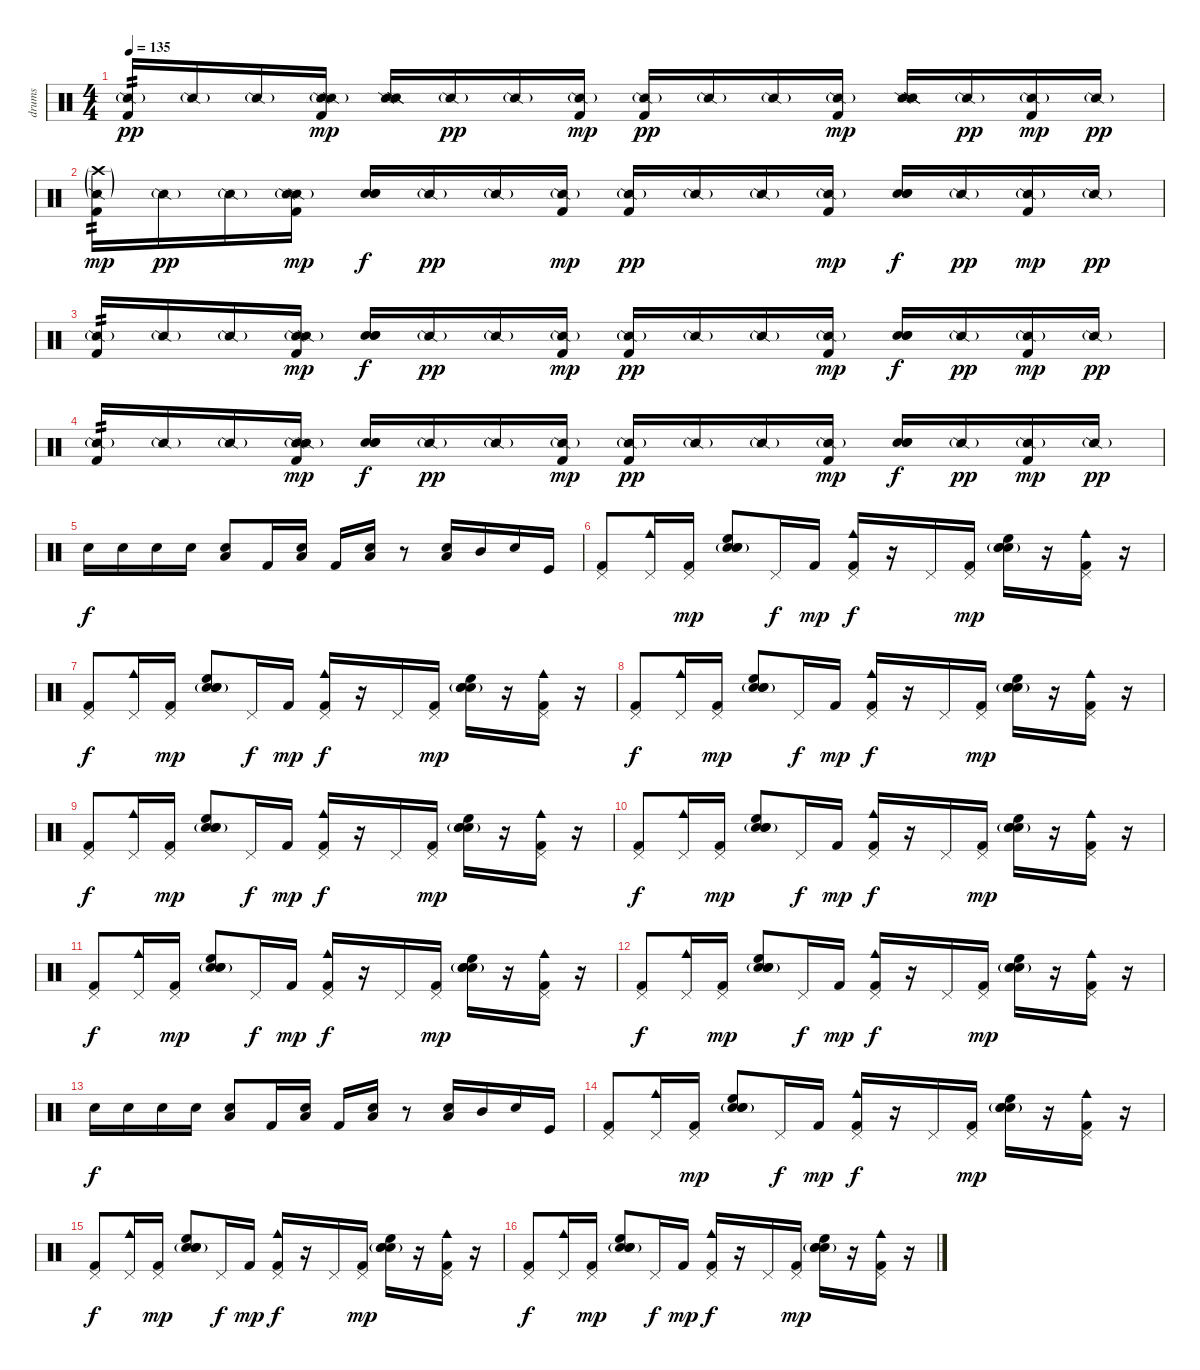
\track ("drums" "drums") {instrument percussion}
\staff {score}
\articulation defaults
\ts (4 4)
\tempo 135
\clef neutral
\ks c
("Snare (side stick) 2"{g} "Kick (hit) 2").16{tp 2 dy pp} "Snare (side stick) 2"{g}.16 "Snare (side stick) 2"{g}.16 ("Snare (side stick) 2"{g} "Snare (side stick) 2"{g} "Kick (hit) 2").16{dy mp} ("Snare (side stick) 2" "Snare (side stick) 2" "Snare (side stick) 2").16 "Snare (side stick) 2"{g}.16{dy pp} "Snare (side stick) 2"{g}.16 ("Snare (side stick) 2"{g} "Kick (hit) 2").16{dy mp} ("Snare (side stick) 2"{g} "Kick (hit) 2").16{dy pp} "Snare (side stick) 2"{g}.16 "Snare (side stick) 2"{g}.16 ("Snare (side stick) 2"{g} "Kick (hit) 2").16{dy mp} ("Snare (side stick) 2" "Snare (side stick) 2" "Snare (side stick) 2").16 "Snare (side stick) 2"{g}.16{dy pp} ("Snare (side stick) 2"{g} "Kick (hit) 2").16{dy mp} "Snare (side stick) 2"{g}.16{dy pp} |
("Snare (side stick) 2"{g} "Crash high (hit)"{g} "Kick (hit) 2").16{tp 2 dy mp} "Snare (side stick) 2"{g}.16{dy pp} "Snare (side stick) 2"{g}.16 ("Snare (side stick) 2"{g} "Snare (side stick) 2"{g} "Kick (hit) 2").16{dy mp} ("Snare (hit) 2" "Snare (hit) 2" "Snare (hit) 2").16{dy f} "Snare (side stick) 2"{g}.16{dy pp} "Snare (side stick) 2"{g}.16 ("Snare (side stick) 2"{g} "Kick (hit) 2").16{dy mp} ("Snare (side stick) 2"{g} "Kick (hit) 2").16{dy pp} "Snare (side stick) 2"{g}.16 "Snare (side stick) 2"{g}.16 ("Snare (side stick) 2"{g} "Kick (hit) 2").16{dy mp} ("Snare (hit) 2" "Snare (hit) 2" "Snare (hit) 2").16{dy f} "Snare (side stick) 2"{g}.16{dy pp} ("Snare (side stick) 2"{g} "Kick (hit) 2").16{dy mp} "Snare (side stick) 2"{g}.16{dy pp} |
("Snare (side stick) 2"{g} "Kick (hit) 2").16{tp 2} "Snare (side stick) 2"{g}.16 "Snare (side stick) 2"{g}.16 ("Snare (side stick) 2"{g} "Snare (side stick) 2"{g} "Kick (hit) 2").16{dy mp} ("Snare (hit) 2" "Snare (hit) 2" "Snare (hit) 2").16{dy f} "Snare (side stick) 2"{g}.16{dy pp} "Snare (side stick) 2"{g}.16 ("Snare (side stick) 2"{g} "Kick (hit) 2").16{dy mp} ("Snare (side stick) 2"{g} "Kick (hit) 2").16{dy pp} "Snare (side stick) 2"{g}.16 "Snare (side stick) 2"{g}.16 ("Snare (side stick) 2"{g} "Kick (hit) 2").16{dy mp} ("Snare (hit) 2" "Snare (hit) 2" "Snare (hit) 2").16{dy f} "Snare (side stick) 2"{g}.16{dy pp} ("Snare (side stick) 2"{g} "Kick (hit) 2").16{dy mp} "Snare (side stick) 2"{g}.16{dy pp} |
("Snare (side stick) 2"{g} "Kick (hit) 2").16{tp 2} "Snare (side stick) 2"{g}.16 "Snare (side stick) 2"{g}.16 ("Snare (side stick) 2"{g} "Snare (side stick) 2"{g} "Kick (hit) 2").16{dy mp} ("Snare (hit) 2" "Snare (hit) 2" "Snare (hit) 2").16{dy f} "Snare (side stick) 2"{g}.16{dy pp} "Snare (side stick) 2"{g}.16 ("Snare (side stick) 2"{g} "Kick (hit) 2").16{dy mp} ("Snare (side stick) 2"{g} "Kick (hit) 2").16{dy pp} "Snare (side stick) 2"{g}.16 "Snare (side stick) 2"{g}.16 ("Snare (side stick) 2"{g} "Kick (hit) 2").16{dy mp} ("Snare (hit) 2" "Snare (hit) 2" "Snare (hit) 2").16{dy f} "Snare (side stick) 2"{g}.16{dy pp} ("Snare (side stick) 2"{g} "Kick (hit) 2").16{dy mp} "Snare (side stick) 2"{g}.16{dy pp} |
"Snare (hit) 2".16{dy f} "Snare (hit) 2".16 "Snare (hit) 2".16 "Snare (hit) 2".16 ("Snare (hit) 2" "Low Tom (hit)").8{bd 60} "Kick (hit) 2".16 ("Snare (hit) 2" "Low Tom (hit)").16{bd 60} "Kick (hit) 2".16 ("Snare (hit) 2" "Low Tom (hit)").16{bd 60} r.8 ("Low Tom (hit)" "Snare (hit) 2").16{bu 60} "Mid Tom (hit)".16 "Snare (hit) 2".16 "Kick (hit)".16 |
("Pedal Hi-Hat (hit)" "Kick (hit) 2").8 ("Cowbell medium (hit)" "Pedal Hi-Hat (hit)").16 ("Pedal Hi-Hat (hit)" "Kick (hit) 2").16{dy mp} ("Snare (hit) 2"{g} "Hand Clap (hit)"{g} "High Floor Tom (hit)" "Snare (hit) 2").8 "Pedal Hi-Hat (hit)".16{dy f} "Kick (hit) 2".16{dy mp} ("Cowbell medium (hit)" "Pedal Hi-Hat (hit)" "Kick (hit) 2").16{dy f} r.16 "Pedal Hi-Hat (hit)".16 ("Pedal Hi-Hat (hit)" "Kick (hit) 2").16{dy mp} ("Snare (hit) 2"{g} "Hand Clap (hit)"{g} "High Floor Tom (hit)" "Snare (hit) 2").16 r.16 ("Cowbell medium (hit)" "Pedal Hi-Hat (hit)" "Kick (hit) 2").16 r.16 |
("Pedal Hi-Hat (hit)" "Kick (hit) 2").8{dy f} ("Cowbell medium (hit)" "Pedal Hi-Hat (hit)").16 ("Pedal Hi-Hat (hit)" "Kick (hit) 2").16{dy mp} ("Snare (hit) 2"{g} "Hand Clap (hit)"{g} "High Floor Tom (hit)" "Snare (hit) 2").8 "Pedal Hi-Hat (hit)".16{dy f} "Kick (hit) 2".16{dy mp} ("Cowbell medium (hit)" "Pedal Hi-Hat (hit)" "Kick (hit) 2").16{dy f} r.16 "Pedal Hi-Hat (hit)".16 ("Pedal Hi-Hat (hit)" "Kick (hit) 2").16{dy mp} ("Snare (hit) 2"{g} "Hand Clap (hit)"{g} "High Floor Tom (hit)" "Snare (hit) 2").16 r.16 ("Cowbell medium (hit)" "Pedal Hi-Hat (hit)" "Kick (hit) 2").16 r.16 |
("Pedal Hi-Hat (hit)" "Kick (hit) 2").8{dy f} ("Cowbell medium (hit)" "Pedal Hi-Hat (hit)").16 ("Pedal Hi-Hat (hit)" "Kick (hit) 2").16{dy mp} ("Snare (hit) 2"{g} "Hand Clap (hit)"{g} "High Floor Tom (hit)" "Snare (hit) 2").8 "Pedal Hi-Hat (hit)".16{dy f} "Kick (hit) 2".16{dy mp} ("Cowbell medium (hit)" "Pedal Hi-Hat (hit)" "Kick (hit) 2").16{dy f} r.16 "Pedal Hi-Hat (hit)".16 ("Pedal Hi-Hat (hit)" "Kick (hit) 2").16{dy mp} ("Snare (hit) 2"{g} "Hand Clap (hit)"{g} "High Floor Tom (hit)" "Snare (hit) 2").16 r.16 ("Cowbell medium (hit)" "Pedal Hi-Hat (hit)" "Kick (hit) 2").16 r.16 |
("Pedal Hi-Hat (hit)" "Kick (hit) 2").8{dy f} ("Cowbell medium (hit)" "Pedal Hi-Hat (hit)").16 ("Pedal Hi-Hat (hit)" "Kick (hit) 2").16{dy mp} ("Snare (hit) 2"{g} "Hand Clap (hit)"{g} "High Floor Tom (hit)" "Snare (hit) 2").8 "Pedal Hi-Hat (hit)".16{dy f} "Kick (hit) 2".16{dy mp} ("Cowbell medium (hit)" "Pedal Hi-Hat (hit)" "Kick (hit) 2").16{dy f} r.16 "Pedal Hi-Hat (hit)".16 ("Pedal Hi-Hat (hit)" "Kick (hit) 2").16{dy mp} ("Snare (hit) 2"{g} "Hand Clap (hit)"{g} "High Floor Tom (hit)" "Snare (hit) 2").16 r.16 ("Cowbell medium (hit)" "Pedal Hi-Hat (hit)" "Kick (hit) 2").16 r.16 |
("Pedal Hi-Hat (hit)" "Kick (hit) 2").8{dy f} ("Cowbell medium (hit)" "Pedal Hi-Hat (hit)").16 ("Pedal Hi-Hat (hit)" "Kick (hit) 2").16{dy mp} ("Snare (hit) 2"{g} "Hand Clap (hit)"{g} "High Floor Tom (hit)" "Snare (hit) 2").8 "Pedal Hi-Hat (hit)".16{dy f} "Kick (hit) 2".16{dy mp} ("Cowbell medium (hit)" "Pedal Hi-Hat (hit)" "Kick (hit) 2").16{dy f} r.16 "Pedal Hi-Hat (hit)".16 ("Pedal Hi-Hat (hit)" "Kick (hit) 2").16{dy mp} ("Snare (hit) 2"{g} "Hand Clap (hit)"{g} "High Floor Tom (hit)" "Snare (hit) 2").16 r.16 ("Cowbell medium (hit)" "Pedal Hi-Hat (hit)" "Kick (hit) 2").16 r.16 |
("Pedal Hi-Hat (hit)" "Kick (hit) 2").8{dy f} ("Cowbell medium (hit)" "Pedal Hi-Hat (hit)").16 ("Pedal Hi-Hat (hit)" "Kick (hit) 2").16{dy mp} ("Snare (hit) 2"{g} "Hand Clap (hit)"{g} "High Floor Tom (hit)" "Snare (hit) 2").8 "Pedal Hi-Hat (hit)".16{dy f} "Kick (hit) 2".16{dy mp} ("Cowbell medium (hit)" "Pedal Hi-Hat (hit)" "Kick (hit) 2").16{dy f} r.16 "Pedal Hi-Hat (hit)".16 ("Pedal Hi-Hat (hit)" "Kick (hit) 2").16{dy mp} ("Snare (hit) 2"{g} "Hand Clap (hit)"{g} "High Floor Tom (hit)" "Snare (hit) 2").16 r.16 ("Cowbell medium (hit)" "Pedal Hi-Hat (hit)" "Kick (hit) 2").16 r.16 |
("Pedal Hi-Hat (hit)" "Kick (hit) 2").8{dy f} ("Cowbell medium (hit)" "Pedal Hi-Hat (hit)").16 ("Pedal Hi-Hat (hit)" "Kick (hit) 2").16{dy mp} ("Snare (hit) 2"{g} "Hand Clap (hit)"{g} "High Floor Tom (hit)" "Snare (hit) 2").8 "Pedal Hi-Hat (hit)".16{dy f} "Kick (hit) 2".16{dy mp} ("Cowbell medium (hit)" "Pedal Hi-Hat (hit)" "Kick (hit) 2").16{dy f} r.16 "Pedal Hi-Hat (hit)".16 ("Pedal Hi-Hat (hit)" "Kick (hit) 2").16{dy mp} ("Snare (hit) 2"{g} "Hand Clap (hit)"{g} "High Floor Tom (hit)" "Snare (hit) 2").16 r.16 ("Cowbell medium (hit)" "Pedal Hi-Hat (hit)" "Kick (hit) 2").16 r.16 |
"Snare (hit) 2".16{dy f} "Snare (hit) 2".16 "Snare (hit) 2".16 "Snare (hit) 2".16 ("Snare (hit) 2" "Low Tom (hit)").8{bd 60} "Kick (hit) 2".16 ("Snare (hit) 2" "Low Tom (hit)").16{bd 60} "Kick (hit) 2".16 ("Snare (hit) 2" "Low Tom (hit)").16{bd 60} r.8 ("Low Tom (hit)" "Snare (hit) 2").16{bu 60} "Mid Tom (hit)".16 "Snare (hit) 2".16 "Kick (hit)".16 |
("Pedal Hi-Hat (hit)" "Kick (hit) 2").8 ("Cowbell medium (hit)" "Pedal Hi-Hat (hit)").16 ("Pedal Hi-Hat (hit)" "Kick (hit) 2").16{dy mp} ("Snare (hit) 2"{g} "Hand Clap (hit)"{g} "High Floor Tom (hit)" "Snare (hit) 2").8 "Pedal Hi-Hat (hit)".16{dy f} "Kick (hit) 2".16{dy mp} ("Cowbell medium (hit)" "Pedal Hi-Hat (hit)" "Kick (hit) 2").16{dy f} r.16 "Pedal Hi-Hat (hit)".16 ("Pedal Hi-Hat (hit)" "Kick (hit) 2").16{dy mp} ("Snare (hit) 2"{g} "Hand Clap (hit)"{g} "High Floor Tom (hit)" "Snare (hit) 2").16 r.16 ("Cowbell medium (hit)" "Pedal Hi-Hat (hit)" "Kick (hit) 2").16 r.16 |
("Pedal Hi-Hat (hit)" "Kick (hit) 2").8{dy f} ("Cowbell medium (hit)" "Pedal Hi-Hat (hit)").16 ("Pedal Hi-Hat (hit)" "Kick (hit) 2").16{dy mp} ("Snare (hit) 2"{g} "Hand Clap (hit)"{g} "High Floor Tom (hit)" "Snare (hit) 2").8 "Pedal Hi-Hat (hit)".16{dy f} "Kick (hit) 2".16{dy mp} ("Cowbell medium (hit)" "Pedal Hi-Hat (hit)" "Kick (hit) 2").16{dy f} r.16 "Pedal Hi-Hat (hit)".16 ("Pedal Hi-Hat (hit)" "Kick (hit) 2").16{dy mp} ("Snare (hit) 2"{g} "Hand Clap (hit)"{g} "High Floor Tom (hit)" "Snare (hit) 2").16 r.16 ("Cowbell medium (hit)" "Pedal Hi-Hat (hit)" "Kick (hit) 2").16 r.16 |
("Pedal Hi-Hat (hit)" "Kick (hit) 2").8{dy f} ("Cowbell medium (hit)" "Pedal Hi-Hat (hit)").16 ("Pedal Hi-Hat (hit)" "Kick (hit) 2").16{dy mp} ("Snare (hit) 2"{g} "Hand Clap (hit)"{g} "High Floor Tom (hit)" "Snare (hit) 2").8 "Pedal Hi-Hat (hit)".16{dy f} "Kick (hit) 2".16{dy mp} ("Cowbell medium (hit)" "Pedal Hi-Hat (hit)" "Kick (hit) 2").16{dy f} r.16 "Pedal Hi-Hat (hit)".16 ("Pedal Hi-Hat (hit)" "Kick (hit) 2").16{dy mp} ("Snare (hit) 2"{g} "Hand Clap (hit)"{g} "High Floor Tom (hit)" "Snare (hit) 2").16 r.16 ("Cowbell medium (hit)" "Pedal Hi-Hat (hit)" "Kick (hit) 2").16 r.16
